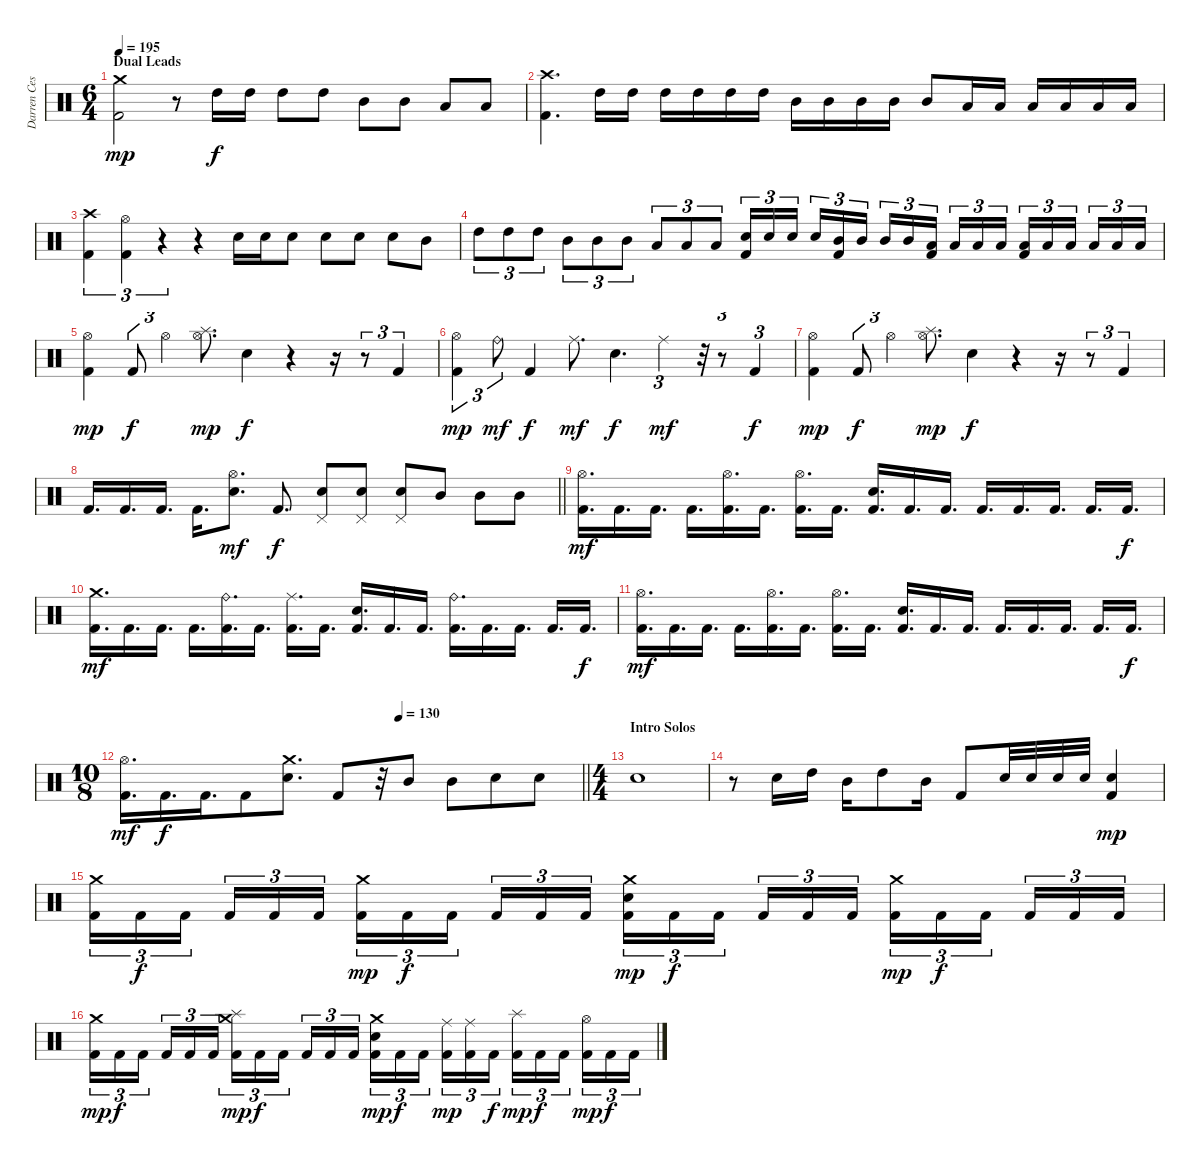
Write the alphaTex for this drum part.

\track ("Darren Cesca" "Darren Ces") {instrument percussion}
\staff {score}
\articulation defaults
\ts (6 4)
\section ("" "Dual Leads")
\tempo 195
\clef neutral
\ks c
("Crash medium (hit)" "Kick (hit) 2").2{dy mp} r.8 "High Tom (hit)".16{dy f} "High Tom (hit)".16 "High Tom (hit)".8 "High Tom (hit)".8 "Mid Tom (hit)".8 "Mid Tom (hit)".8 "Low Tom (hit)".8 "Low Tom (hit)".8 |
("Crash high (hit)" "Kick (hit) 2").4{d} "High Tom (hit)".16 "High Tom (hit)".16 "High Tom (hit)".16 "High Tom (hit)".16 "High Tom (hit)".16 "High Tom (hit)".16 "Mid Tom (hit)".16 "Mid Tom (hit)".16 "Mid Tom (hit)".16 "Mid Tom (hit)".16 "Mid Tom (hit)".8 "Low Tom (hit)".16 "Low Tom (hit)".16 "Low Tom (hit)".16 "Low Tom (hit)".16 "Low Tom (hit)".16 "Low Tom (hit)".16 |
("Crash high (hit)" "Kick (hit) 2").4{tu (3 2)} ("Hi-Hat (open)" "Kick (hit) 2").4{tu (3 2)} r.4{tu (3 2)} r.4 "Electric Snare (hit)".16 "Electric Snare (hit)".16 "Electric Snare (hit)".8 "Electric Snare (hit)".8 "Electric Snare (hit)".8 "Electric Snare (hit)".8 "Mid Tom (hit)".8 |
"High Tom (hit)".8{tu (3 2)} "High Tom (hit)".8{tu (3 2)} "High Tom (hit)".8{tu (3 2)} "Mid Tom (hit)".8{tu (3 2)} "Mid Tom (hit)".8{tu (3 2)} "Mid Tom (hit)".8{tu (3 2)} "Low Tom (hit)".8{tu (3 2)} "Low Tom (hit)".8{tu (3 2)} "Low Tom (hit)".8{tu (3 2)} ("Electric Snare (hit)" "Kick (hit) 2").16{tu (3 2)} "Electric Snare (hit)".16{tu (3 2)} "Electric Snare (hit)".16{tu (3 2) beam splitsecondary} "Electric Snare (hit)".16{tu (3 2)} ("Mid Tom (hit)" "Kick (hit) 2").16{tu (3 2)} "Mid Tom (hit)".16{tu (3 2) beam splitsecondary} "Mid Tom (hit)".16{tu (3 2)} "Mid Tom (hit)".16{tu (3 2)} ("Low Tom (hit)" "Kick (hit) 2").16{tu (3 2) beam splitsecondary} "Low Tom (hit)".16{tu (3 2)} "Low Tom (hit)".16{tu (3 2)} "Low Tom (hit)".16{tu (3 2) beam splitsecondary} ("Low Floor Tom (hit)" "Kick (hit) 2").16{tu (3 2)} "Low Floor Tom (hit)".16{tu (3 2)} "Low Floor Tom (hit)".16{tu (3 2) beam splitsecondary} "Low Floor Tom (hit)".16{tu (3 2)} "Low Floor Tom (hit)".16{tu (3 2)} "Low Floor Tom (hit)".16{tu (3 2)} |
("Hi-Hat (open)" "Kick (hit) 2").4{dy mp} "Kick (hit) 2".8{tu (3 2) dy f} "Hi-Hat (open)".4{tu (3 2)} ("Hi-Hat (open)" "Splash (hit)").8{d dy mp} "Electric Snare (hit)".4{dy f} r.4 r.16 r.8{tu (3 2)} "Kick (hit) 2".4{tu (3 2)} |
("Hi-Hat (open)" "Kick (hit) 2").4{tu (3 2) dy mp} "Ride (bell)".8{tu (3 2) dy mf} "Kick (hit) 2".4{dy f} "Ride (middle)".8{d dy mf} "Electric Snare (hit)".4{d dy f} "Ride (middle)".4{tu (3 2) dy mf} r.32{tu (3 2)} r.8{tu (3 2)} "Kick (hit) 2".4{tu (3 2) dy f} |
("Hi-Hat (open)" "Kick (hit) 2").4{dy mp} "Kick (hit) 2".8{tu (3 2) dy f} "Hi-Hat (open)".4{tu (3 2)} ("Hi-Hat (open)" "Splash (hit)").8{d dy mp} "Electric Snare (hit)".4{dy f} r.4 r.16 r.8{tu (3 2)} "Kick (hit) 2".4{tu (3 2)} |
\barLineRight lightlight "Kick (hit) 2".16{d} "Kick (hit) 2".16{d} "Kick (hit) 2".16{d} "Kick (hit) 2".16{d}
("Hi-Hat (open)" "Electric Snare (hit)").8{d dy mf} "Kick (hit) 2".8{d dy f} ("Pedal Hi-Hat (hit)" "Electric Snare (hit)").8 ("Pedal Hi-Hat (hit)" "Electric Snare (hit)").8 ("Pedal Hi-Hat (hit)" "Electric Snare (hit)").8 "Mid Tom (hit)".8 "Mid Tom (hit)".8 "Mid Tom (hit)".8 |
("Hi-Hat (open)" "Kick (hit) 2").16{d dy mf} "Kick (hit) 2".16{d} "Kick (hit) 2".16{d} "Kick (hit) 2".16{d} ("Hi-Hat (open)" "Kick (hit) 2").16{d} "Kick (hit) 2".16{d} ("Hi-Hat (open)" "Kick (hit) 2").16{d} "Kick (hit) 2".16{d} ("Electric Snare (hit)" "Kick (hit) 2").16{d} "Kick (hit) 2".16{d} "Kick (hit) 2".16{d} "Kick (hit) 2".16{d} "Kick (hit) 2".16{d} "Kick (hit) 2".16{d} "Kick (hit) 2".16{d} "Kick (hit) 2".16{d dy f} |
("Crash medium (hit)" "Kick (hit) 2").16{d dy mf} "Kick (hit) 2".16{d} "Kick (hit) 2".16{d} "Kick (hit) 2".16{d} ("Ride (bell)" "Kick (hit) 2").16{d} "Kick (hit) 2".16{d} ("Ride (middle)" "Kick (hit) 2").16{d} "Kick (hit) 2".16{d} ("Electric Snare (hit)" "Kick (hit) 2").16{d} "Kick (hit) 2".16{d} "Kick (hit) 2".16{d} ("Ride (bell)" "Kick (hit) 2").16{d} "Kick (hit) 2".16{d} "Kick (hit) 2".16{d} "Kick (hit) 2".16{d} "Kick (hit) 2".16{d dy f} |
("Hi-Hat (open)" "Kick (hit) 2").16{d dy mf} "Kick (hit) 2".16{d} "Kick (hit) 2".16{d} "Kick (hit) 2".16{d} ("Hi-Hat (open)" "Kick (hit) 2").16{d} "Kick (hit) 2".16{d} ("Hi-Hat (open)" "Kick (hit) 2").16{d} "Kick (hit) 2".16{d} ("Electric Snare (hit)" "Kick (hit) 2").16{d} "Kick (hit) 2".16{d} "Kick (hit) 2".16{d} "Kick (hit) 2".16{d} "Kick (hit) 2".16{d} "Kick (hit) 2".16{d} "Kick (hit) 2".16{d} "Kick (hit) 2".16{d dy f} |
\ts (10 8)
\tempo (130 0.6)
\barLineRight lightlight
("Hi-Hat (open)" "Kick (hit) 2").16{d dy mf} "Kick (hit) 2".16{d dy f} "Kick (hit) 2".16{d} "Kick (hit) 2".8 ("Crash medium (hit)" "Electric Snare (hit)").8{d} "Kick (hit) 2".8 r.32 "Mid Tom (hit)".8 "Mid Tom (hit)".8 "Electric Snare (hit)".8 "Electric Snare (hit)".8 |
\ts (4 4)
\section ("" "Intro Solos")
"Electric Snare (hit)".1 |
r.8 "Electric Snare (hit)".16 "High Tom (hit)".16 "Mid Tom (hit)".16 "High Tom (hit)".8 "Mid Tom (hit)".16 "Kick (hit) 2".8 "Electric Snare (hit)".32 "Electric Snare (hit)".32 "Electric Snare (hit)".32 "Electric Snare (hit)".32 ("Electric Snare (hit)" "Kick (hit) 2").4{dy mp} |
("Crash medium (hit)" "Kick (hit) 2").16{tu (3 2)} "Kick (hit) 2".16{tu (3 2) dy f} "Kick (hit) 2".16{tu (3 2) beam splitsecondary} "Kick (hit) 2".16{tu (3 2)} "Kick (hit) 2".16{tu (3 2)} "Kick (hit) 2".16{tu (3 2)} ("Crash medium (hit)" "Kick (hit) 2").16{tu (3 2) dy mp} "Kick (hit) 2".16{tu (3 2) dy f} "Kick (hit) 2".16{tu (3 2) beam splitsecondary} "Kick (hit) 2".16{tu (3 2)} "Kick (hit) 2".16{tu (3 2)} "Kick (hit) 2".16{tu (3 2)} ("Crash medium (hit)" "Electric Snare (hit)" "Kick (hit) 2").16{tu (3 2) dy mp} "Kick (hit) 2".16{tu (3 2) dy f} "Kick (hit) 2".16{tu (3 2) beam splitsecondary} "Kick (hit) 2".16{tu (3 2)} "Kick (hit) 2".16{tu (3 2)} "Kick (hit) 2".16{tu (3 2)} ("Crash medium (hit)" "Kick (hit) 2").16{tu (3 2) dy mp} "Kick (hit) 2".16{tu (3 2) dy f} "Kick (hit) 2".16{tu (3 2) beam splitsecondary} "Kick (hit) 2".16{tu (3 2)} "Kick (hit) 2".16{tu (3 2)} "Kick (hit) 2".16{tu (3 2)} |
("Crash medium (hit)" "Kick (hit) 2").16{tu (3 2) dy mp} "Kick (hit) 2".16{tu (3 2) dy f} "Kick (hit) 2".16{tu (3 2) beam splitsecondary} "Kick (hit) 2".16{tu (3 2)} "Kick (hit) 2".16{tu (3 2)} "Kick (hit) 2".16{tu (3 2)} ("Crash medium (hit)" "Splash (hit)" "Kick (hit) 2").16{tu (3 2) dy mp} "Kick (hit) 2".16{tu (3 2) dy f} "Kick (hit) 2".16{tu (3 2) beam splitsecondary} "Kick (hit) 2".16{tu (3 2)} "Kick (hit) 2".16{tu (3 2)} "Kick (hit) 2".16{tu (3 2)} ("Crash medium (hit)" "Electric Snare (hit)" "Kick (hit) 2").16{tu (3 2) dy mp} "Kick (hit) 2".16{tu (3 2) dy f} "Kick (hit) 2".16{tu (3 2) beam splitsecondary} ("Ride (middle)" "Kick (hit) 2").16{tu (3 2) dy mp} ("Ride (middle)" "Kick (hit) 2").16{tu (3 2)} "Kick (hit) 2".16{tu (3 2) dy f} ("Splash (hit)" "Kick (hit) 2").16{tu (3 2) dy mp} "Kick (hit) 2".16{tu (3 2) dy f} "Kick (hit) 2".16{tu (3 2) beam splitsecondary} ("Hi-Hat (open)" "Kick (hit) 2").16{tu (3 2) dy mp} "Kick (hit) 2".16{tu (3 2) dy f} "Kick (hit) 2".16{tu (3 2)}
